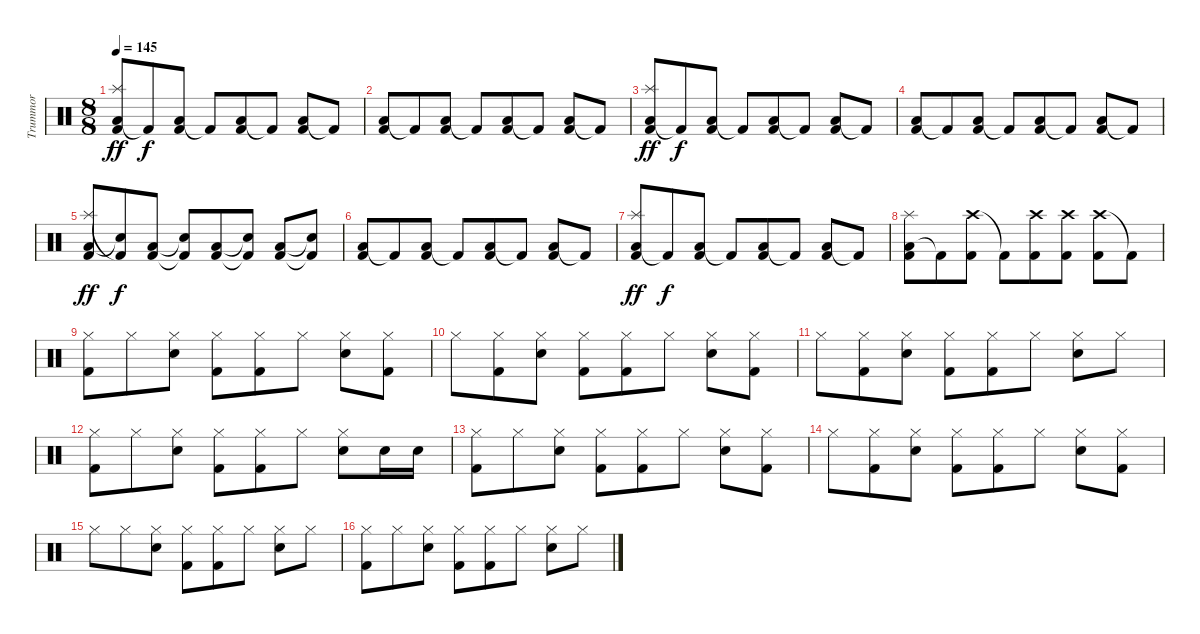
\track ("Trummor" "Trummor") {instrument percussion}
\staff {score}
\articulation defaults
\ts (8 8)
\tempo 145
\clef neutral
\ks c
("Low Floor Tom (hit)" "Splash (hit)" "Kick (hit) 2").8{dy ff} "Kick (hit) 2"{t}.8{dy f} ("Low Floor Tom (hit)" "Kick (hit) 2").8 "Kick (hit) 2"{t}.8 ("Low Floor Tom (hit)" "Kick (hit) 2").8 "Kick (hit) 2"{t}.8 ("Low Floor Tom (hit)" "Kick (hit) 2").8 "Kick (hit) 2"{t}.8 |
("Low Floor Tom (hit)" "Kick (hit) 2").8 "Kick (hit) 2"{t}.8 ("Low Floor Tom (hit)" "Kick (hit) 2").8 "Kick (hit) 2"{t}.8 ("Low Floor Tom (hit)" "Kick (hit) 2").8 "Kick (hit) 2"{t}.8 ("Low Floor Tom (hit)" "Kick (hit) 2").8 "Kick (hit) 2"{t}.8 |
("Low Floor Tom (hit)" "Splash (hit)" "Kick (hit) 2").8{dy ff} "Kick (hit) 2"{t}.8{dy f} ("Low Floor Tom (hit)" "Kick (hit) 2").8 "Kick (hit) 2"{t}.8 ("Low Floor Tom (hit)" "Kick (hit) 2").8 "Kick (hit) 2"{t}.8 ("Low Floor Tom (hit)" "Kick (hit) 2").8 "Kick (hit) 2"{t}.8 |
("Low Floor Tom (hit)" "Kick (hit) 2").8 "Kick (hit) 2"{t}.8 ("Low Floor Tom (hit)" "Kick (hit) 2").8 "Kick (hit) 2"{t}.8 ("Low Floor Tom (hit)" "Kick (hit) 2").8 "Kick (hit) 2"{t}.8 ("Low Floor Tom (hit)" "Kick (hit) 2").8 "Kick (hit) 2"{t}.8 |
("Low Floor Tom (hit)" "Splash (hit)" "Kick (hit) 2").8{dy ff} ("Snare (hit)"{t} "Kick (hit) 2"{t}).8{dy f} ("Low Floor Tom (hit)" "Kick (hit) 2").8 ("Snare (hit)"{t} "Kick (hit) 2"{t}).8 ("Low Floor Tom (hit)" "Kick (hit) 2").8 ("Snare (hit)"{t} "Kick (hit) 2"{t}).8 ("Low Floor Tom (hit)" "Kick (hit) 2").8 ("Snare (hit)"{t} "Kick (hit) 2"{t}).8 |
("Low Floor Tom (hit)" "Kick (hit) 2").8 "Kick (hit) 2"{t}.8 ("Low Floor Tom (hit)" "Kick (hit) 2").8 "Kick (hit) 2"{t}.8 ("Low Floor Tom (hit)" "Kick (hit) 2").8 "Kick (hit) 2"{t}.8 ("Low Floor Tom (hit)" "Kick (hit) 2").8 "Kick (hit) 2"{t}.8 |
("Low Floor Tom (hit)" "Splash (hit)" "Kick (hit) 2").8{dy ff} "Kick (hit) 2"{t}.8{dy f} ("Low Floor Tom (hit)" "Kick (hit) 2").8 "Kick (hit) 2"{t}.8 ("Low Floor Tom (hit)" "Kick (hit) 2").8 "Kick (hit) 2"{t}.8 ("Low Floor Tom (hit)" "Kick (hit) 2").8 "Kick (hit) 2"{t}.8 |
("Low Floor Tom (hit)" "Splash (hit)" "Kick (hit) 2").8 "Kick (hit) 2"{t}.8 ("Crash high (hit)" "Kick (hit) 2").8 "Kick (hit) 2"{t}.8 ("Crash high (hit)" "Kick (hit) 2").8 ("Crash high (hit)" "Kick (hit) 2").8 ("Crash high (hit)" "Kick (hit) 2").8 "Kick (hit) 2"{t}.8 |
("Kick (hit) 2" "Hi-Hat (closed)").8 "Hi-Hat (closed)".8 ("Snare (hit) 2" "Hi-Hat (closed)").8 ("Kick (hit) 2" "Hi-Hat (closed)").8 ("Kick (hit) 2" "Hi-Hat (closed)").8 "Hi-Hat (closed)".8 ("Snare (hit) 2" "Hi-Hat (closed)").8 ("Kick (hit) 2" "Hi-Hat (closed)").8 |
"Hi-Hat (closed)".8 ("Kick (hit) 2" "Hi-Hat (closed)").8 ("Snare (hit) 2" "Hi-Hat (closed)").8 ("Kick (hit) 2" "Hi-Hat (closed)").8 ("Kick (hit) 2" "Hi-Hat (closed)").8 "Hi-Hat (closed)".8 ("Snare (hit) 2" "Hi-Hat (closed)").8 ("Kick (hit) 2" "Hi-Hat (closed)").8 |
"Hi-Hat (closed)".8 ("Kick (hit) 2" "Hi-Hat (closed)").8 ("Snare (hit) 2" "Hi-Hat (closed)").8 ("Kick (hit) 2" "Hi-Hat (closed)").8 ("Kick (hit) 2" "Hi-Hat (closed)").8 "Hi-Hat (closed)".8 ("Snare (hit) 2" "Hi-Hat (closed)").8 "Hi-Hat (closed)".8 |
("Kick (hit) 2" "Hi-Hat (closed)").8 "Hi-Hat (closed)".8 ("Snare (hit) 2" "Hi-Hat (closed)").8 ("Kick (hit) 2" "Hi-Hat (closed)").8 ("Kick (hit) 2" "Hi-Hat (closed)").8 "Hi-Hat (closed)".8 ("Snare (hit) 2" "Hi-Hat (closed)").8 "Snare (hit) 2".16 "Snare (hit) 2".16 |
("Kick (hit) 2" "Hi-Hat (closed)").8 "Hi-Hat (closed)".8 ("Snare (hit) 2" "Hi-Hat (closed)").8 ("Kick (hit) 2" "Hi-Hat (closed)").8 ("Kick (hit) 2" "Hi-Hat (closed)").8 "Hi-Hat (closed)".8 ("Snare (hit) 2" "Hi-Hat (closed)").8 ("Kick (hit) 2" "Hi-Hat (closed)").8 |
"Hi-Hat (closed)".8 ("Kick (hit) 2" "Hi-Hat (closed)").8 ("Snare (hit) 2" "Hi-Hat (closed)").8 ("Kick (hit) 2" "Hi-Hat (closed)").8 ("Kick (hit) 2" "Hi-Hat (closed)").8 "Hi-Hat (closed)".8 ("Snare (hit) 2" "Hi-Hat (closed)").8 ("Kick (hit) 2" "Hi-Hat (closed)").8 |
"Hi-Hat (closed)".8 "Hi-Hat (closed)".8 ("Snare (hit) 2" "Hi-Hat (closed)").8 ("Kick (hit) 2" "Hi-Hat (closed)").8 ("Kick (hit) 2" "Hi-Hat (closed)").8 "Hi-Hat (closed)".8 ("Snare (hit) 2" "Hi-Hat (closed)").8 "Hi-Hat (closed)".8 |
("Kick (hit) 2" "Hi-Hat (closed)").8 "Hi-Hat (closed)".8 ("Snare (hit) 2" "Hi-Hat (closed)").8 ("Kick (hit) 2" "Hi-Hat (closed)").8 ("Kick (hit) 2" "Hi-Hat (closed)").8 "Hi-Hat (closed)".8 ("Snare (hit) 2" "Hi-Hat (closed)").8 "Hi-Hat (closed)".8
